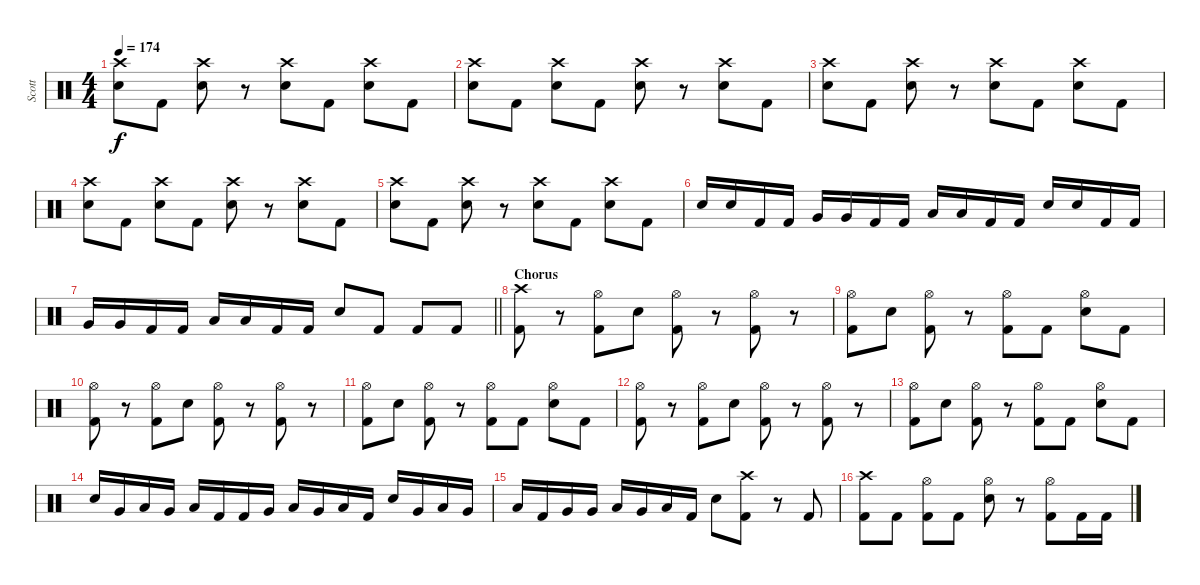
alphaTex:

\track ("Scott" "Scott") {instrument percussion}
\staff {score}
\articulation defaults
\ts (4 4)
\tempo 174
\clef neutral
\ks c
("Crash high (hit)" "Electric Snare (hit)").8{dy f} "Kick (hit) 2".8 ("Crash high (hit)" "Electric Snare (hit)").8 r.8 ("Crash high (hit)" "Electric Snare (hit)").8 "Kick (hit) 2".8 ("Crash high (hit)" "Electric Snare (hit)").8 "Kick (hit) 2".8 |
("Crash high (hit)" "Electric Snare (hit)").8 "Kick (hit) 2".8 ("Crash high (hit)" "Electric Snare (hit)").8 "Kick (hit) 2".8 ("Crash high (hit)" "Electric Snare (hit)").8 r.8 ("Crash high (hit)" "Electric Snare (hit)").8 "Kick (hit) 2".8 |
("Crash high (hit)" "Electric Snare (hit)").8 "Kick (hit) 2".8 ("Crash high (hit)" "Electric Snare (hit)").8 r.8 ("Crash high (hit)" "Electric Snare (hit)").8 "Kick (hit) 2".8 ("Crash high (hit)" "Electric Snare (hit)").8 "Kick (hit) 2".8 |
("Crash high (hit)" "Electric Snare (hit)").8 "Kick (hit) 2".8 ("Crash high (hit)" "Electric Snare (hit)").8 "Kick (hit) 2".8 ("Crash high (hit)" "Electric Snare (hit)").8 r.8 ("Crash high (hit)" "Electric Snare (hit)").8 "Kick (hit) 2".8 |
("Crash high (hit)" "Electric Snare (hit)").8 "Kick (hit) 2".8 ("Crash high (hit)" "Electric Snare (hit)").8 r.8 ("Crash high (hit)" "Electric Snare (hit)").8 "Kick (hit) 2".8 ("Crash high (hit)" "Electric Snare (hit)").8 "Kick (hit) 2".8 |
"Electric Snare (hit)".16 "Electric Snare (hit)".16 "Kick (hit) 2".16 "Kick (hit) 2".16 "Very Low Tom (hit)".16 "Very Low Tom (hit)".16 "Kick (hit) 2".16 "Kick (hit) 2".16 "Low Floor Tom (hit)".16 "Low Floor Tom (hit)".16 "Kick (hit) 2".16 "Kick (hit) 2".16 "Electric Snare (hit)".16 "Electric Snare (hit)".16 "Kick (hit) 2".16 "Kick (hit) 2".16 |
\barLineRight lightlight "Very Low Tom (hit)".16 "Very Low Tom (hit)".16 "Kick (hit) 2".16 "Kick (hit) 2".16 "Low Floor Tom (hit)".16 "Low Floor Tom (hit)".16 "Kick (hit) 2".16 "Kick (hit) 2".16 "Electric Snare (hit)".8 "Kick (hit) 2".8 "Kick (hit) 2".8 "Kick (hit) 2".8
|
\section ("" "Chorus")
("Crash high (hit)" "Kick (hit) 2").8 r.8 ("Hi-Hat (open)" "Kick (hit) 2").8 "Electric Snare (hit)".8 ("Hi-Hat (open)" "Kick (hit) 2").8 r.8 ("Hi-Hat (open)" "Kick (hit) 2").8 r.8 |
("Hi-Hat (open)" "Kick (hit) 2").8 "Electric Snare (hit)".8 ("Hi-Hat (open)" "Kick (hit) 2").8 r.8 ("Hi-Hat (open)" "Kick (hit) 2").8 "Kick (hit) 2".8 ("Hi-Hat (open)" "Electric Snare (hit)").8 "Kick (hit) 2".8 |
("Hi-Hat (open)" "Kick (hit) 2").8 r.8 ("Hi-Hat (open)" "Kick (hit) 2").8 "Electric Snare (hit)".8 ("Hi-Hat (open)" "Kick (hit) 2").8 r.8 ("Hi-Hat (open)" "Kick (hit) 2").8 r.8 |
("Hi-Hat (open)" "Kick (hit) 2").8 "Electric Snare (hit)".8 ("Hi-Hat (open)" "Kick (hit) 2").8 r.8 ("Hi-Hat (open)" "Kick (hit) 2").8 "Kick (hit) 2".8 ("Hi-Hat (open)" "Electric Snare (hit)").8 "Kick (hit) 2".8 |
("Hi-Hat (open)" "Kick (hit) 2").8 r.8 ("Hi-Hat (open)" "Kick (hit) 2").8 "Electric Snare (hit)".8 ("Hi-Hat (open)" "Kick (hit) 2").8 r.8 ("Hi-Hat (open)" "Kick (hit) 2").8 r.8 |
("Hi-Hat (open)" "Kick (hit) 2").8 "Electric Snare (hit)".8 ("Hi-Hat (open)" "Kick (hit) 2").8 r.8 ("Hi-Hat (open)" "Kick (hit) 2").8 "Kick (hit) 2".8 ("Hi-Hat (open)" "Electric Snare (hit)").8 "Kick (hit) 2".8 |
"Electric Snare (hit)".16 "Very Low Tom (hit)".16 "Low Floor Tom (hit)".16 "Very Low Tom (hit)".16 "Low Floor Tom (hit)".16 "Kick (hit) 2".16 "Kick (hit) 2".16 "Very Low Tom (hit)".16 "Low Floor Tom (hit)".16 "Very Low Tom (hit)".16 "Low Floor Tom (hit)".16 "Kick (hit) 2".16 "Electric Snare (hit)".16 "Very Low Tom (hit)".16 "Low Floor Tom (hit)".16 "Very Low Tom (hit)".16 |
"Low Floor Tom (hit)".16 "Kick (hit) 2".16 "Very Low Tom (hit)".16 "Very Low Tom (hit)".16 "Low Floor Tom (hit)".16 "Very Low Tom (hit)".16 "Low Floor Tom (hit)".16 "Kick (hit) 2".16 "Electric Snare (hit)".8 ("Crash high (hit)" "Kick (hit) 2").8 r.8 "Kick (hit) 2".8 |
("Crash high (hit)" "Kick (hit) 2").8 "Kick (hit) 2".8 ("Hi-Hat (open)" "Kick (hit) 2").8 "Kick (hit) 2".8 ("Hi-Hat (open)" "Electric Snare (hit)").8 r.8 ("Hi-Hat (open)" "Kick (hit) 2").8 "Kick (hit) 2".16 "Kick (hit) 2".16
